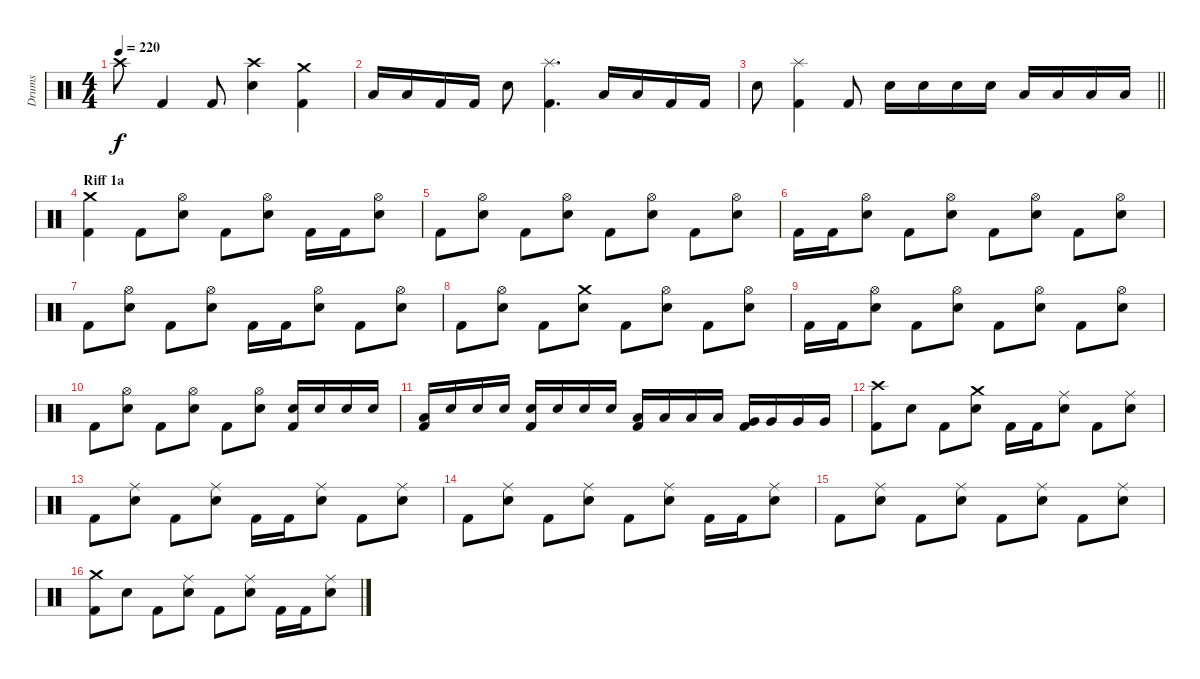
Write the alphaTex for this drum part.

\track ("Drums" "Drums") {instrument percussion}
\staff {score}
\articulation defaults
\ts (4 4)
\tempo 220
\clef neutral
\ks c "Crash high (hit)".8{dy f} "Kick (hit) 2".4 "Kick (hit) 2".8
("Electric Snare (hit)" "Crash high (hit)").4 ("Kick (hit) 2" "Crash medium (hit)").4 |
"Low Tom (hit)".16 "Low Tom (hit)".16 "Kick (hit) 2".16 "Kick (hit) 2".16 "Electric Snare (hit)".8 ("Kick (hit) 2" "Splash (hit)").4{d} "Low Tom (hit)".16 "Low Tom (hit)".16 "Kick (hit) 2".16 "Kick (hit) 2".16 |
\barLineRight lightlight "Electric Snare (hit)".8
("Kick (hit) 2" "Splash (hit)").4 "Kick (hit) 2".8 "Electric Snare (hit)".16 "Electric Snare (hit)".16 "Electric Snare (hit)".16 "Electric Snare (hit)".16 "Low Tom (hit)".16 "Low Tom (hit)".16 "Low Tom (hit)".16 "Low Tom (hit)".16 |
\section ("" "Riff 1a")
("Crash medium (hit)" "Kick (hit) 2").4 "Kick (hit) 2".8 ("Hi-Hat (open)" "Electric Snare (hit)").8 "Kick (hit) 2".8 ("Hi-Hat (open)" "Electric Snare (hit)").8 "Kick (hit) 2".16 "Kick (hit) 2".16 ("Electric Snare (hit)" "Hi-Hat (open)").8 |
"Kick (hit) 2".8 ("Hi-Hat (open)" "Electric Snare (hit)").8 "Kick (hit) 2".8 ("Electric Snare (hit)" "Hi-Hat (open)").8 "Kick (hit) 2".8 ("Hi-Hat (open)" "Electric Snare (hit)").8 "Kick (hit) 2".8 ("Electric Snare (hit)" "Hi-Hat (open)").8 |
"Kick (hit) 2".16 "Kick (hit) 2".16 ("Hi-Hat (open)" "Electric Snare (hit)").8 "Kick (hit) 2".8 ("Electric Snare (hit)" "Hi-Hat (open)").8 "Kick (hit) 2".8 ("Hi-Hat (open)" "Electric Snare (hit)").8 "Kick (hit) 2".8 ("Electric Snare (hit)" "Hi-Hat (open)").8 |
"Kick (hit) 2".8 ("Hi-Hat (open)" "Electric Snare (hit)").8 "Kick (hit) 2".8 ("Electric Snare (hit)" "Hi-Hat (open)").8 "Kick (hit) 2".16 "Kick (hit) 2".16 ("Electric Snare (hit)" "Hi-Hat (open)").8 "Kick (hit) 2".8 ("Electric Snare (hit)" "Hi-Hat (open)").8 |
"Kick (hit) 2".8 ("Hi-Hat (open)" "Electric Snare (hit)").8 "Kick (hit) 2".8 ("Electric Snare (hit)" "Crash medium (hit)").8 "Kick (hit) 2".8 ("Hi-Hat (open)" "Electric Snare (hit)").8 "Kick (hit) 2".8 ("Electric Snare (hit)" "Hi-Hat (open)").8 |
"Kick (hit) 2".16 "Kick (hit) 2".16 ("Hi-Hat (open)" "Electric Snare (hit)").8 "Kick (hit) 2".8 ("Electric Snare (hit)" "Hi-Hat (open)").8 "Kick (hit) 2".8 ("Hi-Hat (open)" "Electric Snare (hit)").8 "Kick (hit) 2".8 ("Electric Snare (hit)" "Hi-Hat (open)").8 |
"Kick (hit) 2".8 ("Hi-Hat (open)" "Electric Snare (hit)").8 "Kick (hit) 2".8 ("Electric Snare (hit)" "Hi-Hat (open)").8 "Kick (hit) 2".8 ("Hi-Hat (open)" "Electric Snare (hit)").8 ("Electric Snare (hit)" "Kick (hit) 2").16 "Electric Snare (hit)".16 "Electric Snare (hit)".16 "Electric Snare (hit)".16 |
("Kick (hit) 2" "Low Tom (hit)").16 "Electric Snare (hit)".16 "Electric Snare (hit)".16 "Electric Snare (hit)".16 ("Kick (hit) 2" "Electric Snare (hit)").16 "Electric Snare (hit)".16 "Electric Snare (hit)".16 "Electric Snare (hit)".16 ("Low Tom (hit)" "Kick (hit) 2").16 "Low Tom (hit)".16 "Low Tom (hit)".16 "Low Tom (hit)".16 ("Very Low Tom (hit)" "Kick (hit) 2").16 "Very Low Tom (hit)".16 "Very Low Tom (hit)".16 "Very Low Tom (hit)".16 |
("Crash high (hit)" "Kick (hit) 2").8 "Electric Snare (hit)".8 "Kick (hit) 2".8 ("Crash medium (hit)" "Electric Snare (hit)").8 "Kick (hit) 2".16 "Kick (hit) 2".16 ("Electric Snare (hit)" "Ride (middle)").8 "Kick (hit) 2".8 ("Electric Snare (hit)" "Ride (middle)").8 |
"Kick (hit) 2".8 ("Electric Snare (hit)" "Ride (middle)").8 "Kick (hit) 2".8 ("Electric Snare (hit)" "Ride (middle)").8 "Kick (hit) 2".16 "Kick (hit) 2".16 ("Electric Snare (hit)" "Ride (middle)").8 "Kick (hit) 2".8 ("Electric Snare (hit)" "Ride (middle)").8 |
"Kick (hit) 2".8 ("Electric Snare (hit)" "Ride (middle)").8 "Kick (hit) 2".8 ("Electric Snare (hit)" "Ride (middle)").8 "Kick (hit) 2".8 ("Electric Snare (hit)" "Ride (middle)").8 "Kick (hit) 2".16 "Kick (hit) 2".16 ("Electric Snare (hit)" "Ride (middle)").8 |
"Kick (hit) 2".8 ("Electric Snare (hit)" "Ride (middle)").8 "Kick (hit) 2".8 ("Electric Snare (hit)" "Ride (middle)").8 "Kick (hit) 2".8 ("Electric Snare (hit)" "Ride (middle)").8 "Kick (hit) 2".8 ("Electric Snare (hit)" "Ride (middle)").8 |
("Kick (hit) 2" "Crash medium (hit)").8 "Electric Snare (hit)".8 "Kick (hit) 2".8 ("Electric Snare (hit)" "Ride (middle)").8 "Kick (hit) 2".8 ("Electric Snare (hit)" "Ride (middle)").8 "Kick (hit) 2".16 "Kick (hit) 2".16 ("Electric Snare (hit)" "Ride (middle)").8
